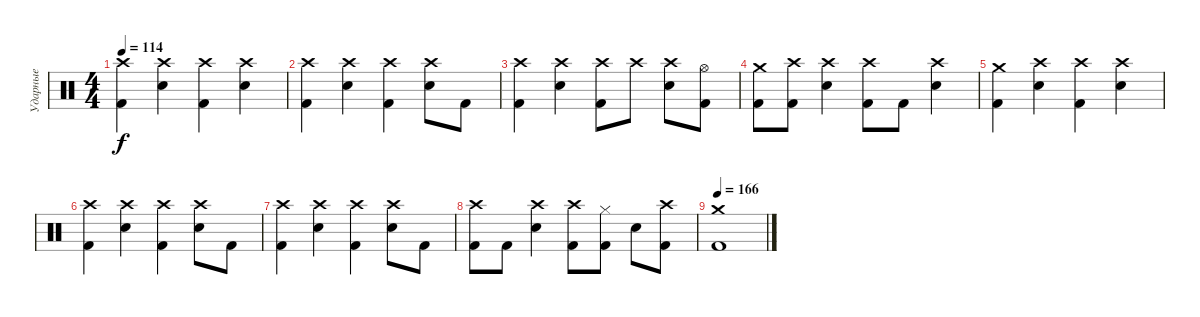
\track ("Ударные" "Ударные") {instrument percussion}
\staff {score}
\articulation defaults
\ts (4 4)
\tempo 114
\clef neutral
\ks c
("Crash high (hit)" "Kick (hit) 2").4{dy f} ("Crash high (hit)" "Electric Snare (hit)").4 ("Crash high (hit)" "Kick (hit) 2").4 ("Crash high (hit)" "Electric Snare (hit)").4 |
("Crash high (hit)" "Kick (hit) 2").4 ("Crash high (hit)" "Electric Snare (hit)").4 ("Crash high (hit)" "Kick (hit) 2").4 ("Crash high (hit)" "Electric Snare (hit)").8 "Kick (hit) 2".8 |
("Crash high (hit)" "Kick (hit) 2").4 ("Crash high (hit)" "Electric Snare (hit)").4 ("Crash high (hit)" "Kick (hit) 2").8 "Crash high (hit)".8 ("Crash high (hit)" "Electric Snare (hit)").8 ("Hi-Hat (open)" "Kick (hit) 2").8 |
("Crash medium (hit)" "Kick (hit) 2").8 ("Crash high (hit)" "Kick (hit) 2").8 ("Crash high (hit)" "Electric Snare (hit)").4 ("Crash high (hit)" "Kick (hit) 2").8 "Kick (hit) 2".8 ("Crash high (hit)" "Electric Snare (hit)").4 |
("Crash medium (hit)" "Kick (hit) 2").4 ("Crash high (hit)" "Electric Snare (hit)").4 ("Crash high (hit)" "Kick (hit) 2").4 ("Crash high (hit)" "Electric Snare (hit)").4 |
("Crash high (hit)" "Kick (hit) 2").4 ("Crash high (hit)" "Electric Snare (hit)").4 ("Crash high (hit)" "Kick (hit) 2").4 ("Crash high (hit)" "Electric Snare (hit)").8 "Kick (hit) 2".8 |
("Crash high (hit)" "Kick (hit) 2").4 ("Crash high (hit)" "Electric Snare (hit)").4 ("Crash high (hit)" "Kick (hit) 2").4 ("Crash high (hit)" "Electric Snare (hit)").8 "Kick (hit) 2".8 |
("Crash high (hit)" "Kick (hit) 2").8 "Kick (hit) 2".8 ("Crash high (hit)" "Electric Snare (hit)").4 ("Crash high (hit)" "Kick (hit) 2").8 ("Hi-Hat (closed)" "Kick (hit) 2").8 "Electric Snare (hit)".8 ("Crash high (hit)" "Kick (hit) 2").8 |
\tempo 166
("Crash medium (hit)" "Kick (hit) 2").1
